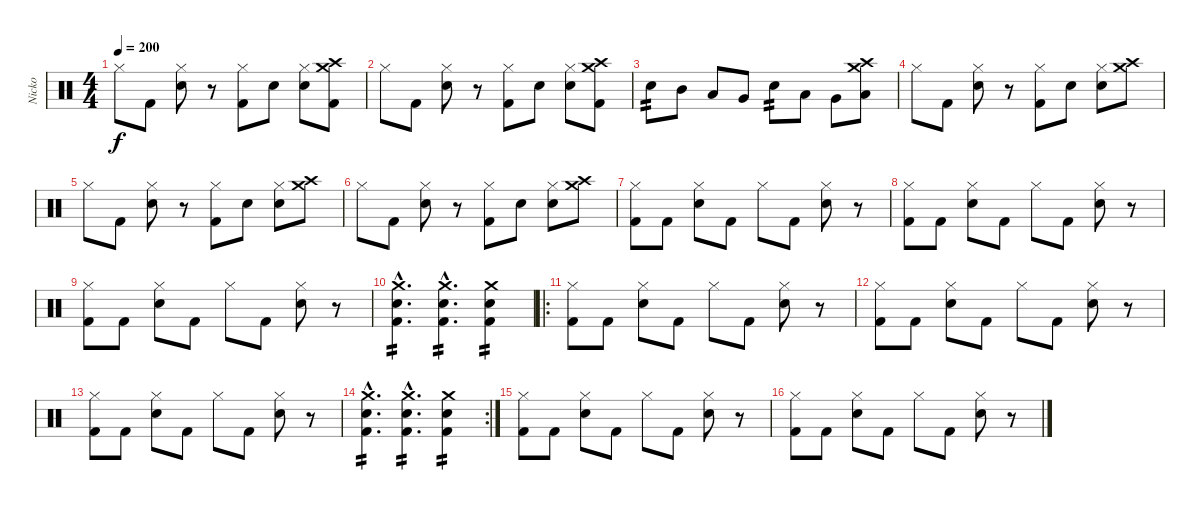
\track ("Nicko" "Nicko") {instrument percussion}
\staff {score}
\articulation defaults
\ts (4 4)
\tempo 200
\clef neutral
\ks c "Hi-Hat (closed)".8{dy f} "Kick (hit) 2".8
("Hi-Hat (closed)" "Electric Snare (hit)").8 r.8 ("Hi-Hat (closed)" "Kick (hit) 2").8 "Electric Snare (hit)".8 ("Hi-Hat (closed)" "Electric Snare (hit)").8 ("Crash medium (hit)" "Crash high (hit)" "Kick (hit) 2").8 |
"Hi-Hat (closed)".8 "Kick (hit) 2".8 ("Hi-Hat (closed)" "Electric Snare (hit)").8 r.8 ("Hi-Hat (closed)" "Kick (hit) 2").8 "Electric Snare (hit)".8 ("Hi-Hat (closed)" "Electric Snare (hit)").8 ("Crash medium (hit)" "Crash high (hit)" "Kick (hit) 2").8 |
"Electric Snare (hit)".8{tp 2} "Mid Tom (hit)".8 "Low Tom (hit)".8 "Very Low Tom (hit)".8 "Electric Snare (hit)".8{tp 2} "Low Tom (hit)".8 "Very Low Tom (hit)".8 ("Crash high (hit)" "Crash medium (hit)" "Low Floor Tom (hit)").8 |
"Hi-Hat (closed)".8 "Kick (hit) 2".8 ("Hi-Hat (closed)" "Electric Snare (hit)").8 r.8 ("Hi-Hat (closed)" "Kick (hit) 2").8 "Electric Snare (hit)".8 ("Hi-Hat (closed)" "Electric Snare (hit)").8 ("Crash medium (hit)" "Crash high (hit)").8 |
"Hi-Hat (closed)".8 "Kick (hit) 2".8 ("Hi-Hat (closed)" "Electric Snare (hit)").8 r.8 ("Hi-Hat (closed)" "Kick (hit) 2").8 "Electric Snare (hit)".8 ("Hi-Hat (closed)" "Electric Snare (hit)").8 ("Crash medium (hit)" "Crash high (hit)").8 |
"Hi-Hat (closed)".8 "Kick (hit) 2".8 ("Hi-Hat (closed)" "Electric Snare (hit)").8 r.8 ("Hi-Hat (closed)" "Kick (hit) 2").8 "Electric Snare (hit)".8 ("Hi-Hat (closed)" "Electric Snare (hit)").8 ("Crash medium (hit)" "Crash high (hit)").8 |
("Hi-Hat (closed)" "Kick (hit) 2").8 "Kick (hit) 2".8 ("Hi-Hat (closed)" "Electric Snare (hit)").8 "Kick (hit) 2".8 "Hi-Hat (closed)".8 "Kick (hit) 2".8 ("Hi-Hat (closed)" "Electric Snare (hit)").8 r.8 |
("Hi-Hat (closed)" "Kick (hit) 2").8 "Kick (hit) 2".8 ("Hi-Hat (closed)" "Electric Snare (hit)").8 "Kick (hit) 2".8 "Hi-Hat (closed)".8 "Kick (hit) 2".8 ("Hi-Hat (closed)" "Electric Snare (hit)").8 r.8 |
("Hi-Hat (closed)" "Kick (hit) 2").8 "Kick (hit) 2".8 ("Hi-Hat (closed)" "Electric Snare (hit)").8 "Kick (hit) 2".8 "Hi-Hat (closed)".8 "Kick (hit) 2".8 ("Hi-Hat (closed)" "Electric Snare (hit)").8 r.8 |
("Crash medium (hit)"{hac} "Electric Snare (hit)"{hac} "Kick (hit) 2"{hac}).4{d tp 2} ("Crash medium (hit)"{hac} "Electric Snare (hit)"{hac} "Kick (hit) 2"{hac}).4{d tp 2} ("Crash medium (hit)" "Electric Snare (hit)" "Kick (hit) 2").4{tp 2} |
\ro
("Hi-Hat (closed)" "Kick (hit) 2").8 "Kick (hit) 2".8 ("Hi-Hat (closed)" "Electric Snare (hit)").8 "Kick (hit) 2".8 "Hi-Hat (closed)".8 "Kick (hit) 2".8 ("Hi-Hat (closed)" "Electric Snare (hit)").8 r.8 |
("Hi-Hat (closed)" "Kick (hit) 2").8 "Kick (hit) 2".8 ("Hi-Hat (closed)" "Electric Snare (hit)").8 "Kick (hit) 2".8 "Hi-Hat (closed)".8 "Kick (hit) 2".8 ("Hi-Hat (closed)" "Electric Snare (hit)").8 r.8 |
("Hi-Hat (closed)" "Kick (hit) 2").8 "Kick (hit) 2".8 ("Hi-Hat (closed)" "Electric Snare (hit)").8 "Kick (hit) 2".8 "Hi-Hat (closed)".8 "Kick (hit) 2".8 ("Hi-Hat (closed)" "Electric Snare (hit)").8 r.8 |
\rc 2
("Crash medium (hit)"{hac} "Electric Snare (hit)"{hac} "Kick (hit) 2"{hac}).4{d tp 2} ("Crash medium (hit)"{hac} "Electric Snare (hit)"{hac} "Kick (hit) 2"{hac}).4{d tp 2} ("Crash medium (hit)" "Electric Snare (hit)" "Kick (hit) 2").4{tp 2} |
("Hi-Hat (closed)" "Kick (hit) 2").8 "Kick (hit) 2".8 ("Hi-Hat (closed)" "Electric Snare (hit)").8 "Kick (hit) 2".8 "Hi-Hat (closed)".8 "Kick (hit) 2".8 ("Hi-Hat (closed)" "Electric Snare (hit)").8 r.8 |
("Hi-Hat (closed)" "Kick (hit) 2").8 "Kick (hit) 2".8 ("Hi-Hat (closed)" "Electric Snare (hit)").8 "Kick (hit) 2".8 "Hi-Hat (closed)".8 "Kick (hit) 2".8 ("Hi-Hat (closed)" "Electric Snare (hit)").8 r.8
